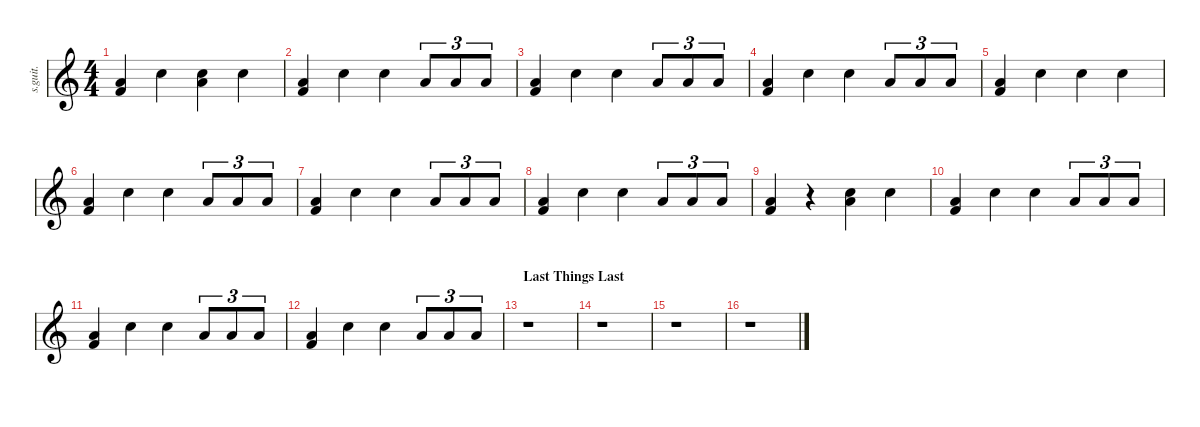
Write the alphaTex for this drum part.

\defaultSystemsLayout 4
\hideDynamics
\bracketExtendMode nobrackets
\track ("Daniel Platzman - Drums" "s.guit.") {instrument percussion}
\staff {score}
\articulation defaults
\ts (4 4)
\tempo (125 hide)
\clef g2
\ks c
("Low Floor Tom (hit)" "Kick (hit) 2").4{lyrics (0 "") lyrics (1 "") lyrics (2 "") lyrics (3 "") lyrics (4 "") dy f} "Hand Clap (hit)".4{lyrics (0 "") lyrics (1 "") lyrics (2 "") lyrics (3 "") lyrics (4 "")} ("Low Floor Tom (hit)" "Electric Snare (hit)").4{lyrics (0 "") lyrics (1 "") lyrics (2 "") lyrics (3 "") lyrics (4 "")} "Hand Clap (hit)".4{lyrics (0 "") lyrics (1 "") lyrics (2 "") lyrics (3 "") lyrics (4 "")} |
("Low Floor Tom (hit)" "Kick (hit) 2").4{lyrics (0 "") lyrics (1 "") lyrics (2 "") lyrics (3 "") lyrics (4 "")} "Hand Clap (hit)".4{lyrics (0 "") lyrics (1 "") lyrics (2 "") lyrics (3 "") lyrics (4 "")} "Electric Snare (hit)".4{lyrics (0 "") lyrics (1 "") lyrics (2 "") lyrics (3 "") lyrics (4 "")} "Low Floor Tom (hit)".8{tu (3 2) lyrics (0 "") lyrics (1 "") lyrics (2 "") lyrics (3 "") lyrics (4 "")} "Low Floor Tom (hit)".8{tu (3 2) lyrics (0 "") lyrics (1 "") lyrics (2 "") lyrics (3 "") lyrics (4 "")} "Low Floor Tom (hit)".8{tu (3 2) lyrics (0 "") lyrics (1 "") lyrics (2 "") lyrics (3 "") lyrics (4 "")} |
("Low Floor Tom (hit)" "Kick (hit) 2").4{lyrics (0 "") lyrics (1 "") lyrics (2 "") lyrics (3 "") lyrics (4 "")} "Hand Clap (hit)".4{lyrics (0 "") lyrics (1 "") lyrics (2 "") lyrics (3 "") lyrics (4 "")} "Electric Snare (hit)".4{lyrics (0 "") lyrics (1 "") lyrics (2 "") lyrics (3 "") lyrics (4 "")} "Low Floor Tom (hit)".8{tu (3 2) lyrics (0 "") lyrics (1 "") lyrics (2 "") lyrics (3 "") lyrics (4 "")} "Low Floor Tom (hit)".8{tu (3 2) lyrics (0 "") lyrics (1 "") lyrics (2 "") lyrics (3 "") lyrics (4 "")} "Low Floor Tom (hit)".8{tu (3 2) lyrics (0 "") lyrics (1 "") lyrics (2 "") lyrics (3 "") lyrics (4 "")} |
("Low Floor Tom (hit)" "Kick (hit) 2").4{lyrics (0 "") lyrics (1 "") lyrics (2 "") lyrics (3 "") lyrics (4 "")} "Hand Clap (hit)".4{lyrics (0 "") lyrics (1 "") lyrics (2 "") lyrics (3 "") lyrics (4 "")} "Electric Snare (hit)".4{lyrics (0 "") lyrics (1 "") lyrics (2 "") lyrics (3 "") lyrics (4 "")} "Low Floor Tom (hit)".8{tu (3 2) lyrics (0 "") lyrics (1 "") lyrics (2 "") lyrics (3 "") lyrics (4 "")} "Low Floor Tom (hit)".8{tu (3 2) lyrics (0 "") lyrics (1 "") lyrics (2 "") lyrics (3 "") lyrics (4 "")} "Low Floor Tom (hit)".8{tu (3 2) lyrics (0 "") lyrics (1 "") lyrics (2 "") lyrics (3 "") lyrics (4 "")} |
("Low Floor Tom (hit)" "Kick (hit) 2").4{lyrics (0 "") lyrics (1 "") lyrics (2 "") lyrics (3 "") lyrics (4 "")} "Hand Clap (hit)".4{lyrics (0 "") lyrics (1 "") lyrics (2 "") lyrics (3 "") lyrics (4 "")} "Electric Snare (hit)".4{lyrics (0 "") lyrics (1 "") lyrics (2 "") lyrics (3 "") lyrics (4 "")} "Hand Clap (hit)".4{lyrics (0 "") lyrics (1 "") lyrics (2 "") lyrics (3 "") lyrics (4 "")} |
("Low Floor Tom (hit)" "Kick (hit) 2").4{lyrics (0 "") lyrics (1 "") lyrics (2 "") lyrics (3 "") lyrics (4 "")} "Hand Clap (hit)".4{lyrics (0 "") lyrics (1 "") lyrics (2 "") lyrics (3 "") lyrics (4 "")} "Electric Snare (hit)".4{lyrics (0 "") lyrics (1 "") lyrics (2 "") lyrics (3 "") lyrics (4 "")} "Low Floor Tom (hit)".8{tu (3 2) lyrics (0 "") lyrics (1 "") lyrics (2 "") lyrics (3 "") lyrics (4 "")} "Low Floor Tom (hit)".8{tu (3 2) lyrics (0 "") lyrics (1 "") lyrics (2 "") lyrics (3 "") lyrics (4 "")} "Low Floor Tom (hit)".8{tu (3 2) lyrics (0 "") lyrics (1 "") lyrics (2 "") lyrics (3 "") lyrics (4 "")} |
("Low Floor Tom (hit)" "Kick (hit) 2").4{lyrics (0 "") lyrics (1 "") lyrics (2 "") lyrics (3 "") lyrics (4 "")} "Hand Clap (hit)".4{lyrics (0 "") lyrics (1 "") lyrics (2 "") lyrics (3 "") lyrics (4 "")} "Electric Snare (hit)".4{lyrics (0 "") lyrics (1 "") lyrics (2 "") lyrics (3 "") lyrics (4 "")} "Low Floor Tom (hit)".8{tu (3 2) lyrics (0 "") lyrics (1 "") lyrics (2 "") lyrics (3 "") lyrics (4 "")} "Low Floor Tom (hit)".8{tu (3 2) lyrics (0 "") lyrics (1 "") lyrics (2 "") lyrics (3 "") lyrics (4 "")} "Low Floor Tom (hit)".8{tu (3 2) lyrics (0 "") lyrics (1 "") lyrics (2 "") lyrics (3 "") lyrics (4 "")} |
("Low Floor Tom (hit)" "Kick (hit) 2").4{lyrics (0 "") lyrics (1 "") lyrics (2 "") lyrics (3 "") lyrics (4 "")} "Hand Clap (hit)".4{lyrics (0 "") lyrics (1 "") lyrics (2 "") lyrics (3 "") lyrics (4 "")} "Electric Snare (hit)".4{lyrics (0 "") lyrics (1 "") lyrics (2 "") lyrics (3 "") lyrics (4 "")} "Low Floor Tom (hit)".8{tu (3 2) lyrics (0 "") lyrics (1 "") lyrics (2 "") lyrics (3 "") lyrics (4 "")} "Low Floor Tom (hit)".8{tu (3 2) lyrics (0 "") lyrics (1 "") lyrics (2 "") lyrics (3 "") lyrics (4 "")} "Low Floor Tom (hit)".8{tu (3 2) lyrics (0 "") lyrics (1 "") lyrics (2 "") lyrics (3 "") lyrics (4 "")} |
("Low Floor Tom (hit)" "Kick (hit) 2").4{lyrics (0 "") lyrics (1 "") lyrics (2 "") lyrics (3 "") lyrics (4 "")} r.4 ("Low Floor Tom (hit)" "Electric Snare (hit)").4{lyrics (0 "") lyrics (1 "") lyrics (2 "") lyrics (3 "") lyrics (4 "")} "Hand Clap (hit)".4{lyrics (0 "") lyrics (1 "") lyrics (2 "") lyrics (3 "") lyrics (4 "")} |
("Low Floor Tom (hit)" "Kick (hit) 2").4{lyrics (0 "") lyrics (1 "") lyrics (2 "") lyrics (3 "") lyrics (4 "")} "Hand Clap (hit)".4{lyrics (0 "") lyrics (1 "") lyrics (2 "") lyrics (3 "") lyrics (4 "")} "Electric Snare (hit)".4{lyrics (0 "") lyrics (1 "") lyrics (2 "") lyrics (3 "") lyrics (4 "")} "Low Floor Tom (hit)".8{tu (3 2) lyrics (0 "") lyrics (1 "") lyrics (2 "") lyrics (3 "") lyrics (4 "")} "Low Floor Tom (hit)".8{tu (3 2) lyrics (0 "") lyrics (1 "") lyrics (2 "") lyrics (3 "") lyrics (4 "")} "Low Floor Tom (hit)".8{tu (3 2) lyrics (0 "") lyrics (1 "") lyrics (2 "") lyrics (3 "") lyrics (4 "")} |
("Low Floor Tom (hit)" "Kick (hit) 2").4{lyrics (0 "") lyrics (1 "") lyrics (2 "") lyrics (3 "") lyrics (4 "")} "Hand Clap (hit)".4{lyrics (0 "") lyrics (1 "") lyrics (2 "") lyrics (3 "") lyrics (4 "")} "Electric Snare (hit)".4{lyrics (0 "") lyrics (1 "") lyrics (2 "") lyrics (3 "") lyrics (4 "")} "Low Floor Tom (hit)".8{tu (3 2) lyrics (0 "") lyrics (1 "") lyrics (2 "") lyrics (3 "") lyrics (4 "")} "Low Floor Tom (hit)".8{tu (3 2) lyrics (0 "") lyrics (1 "") lyrics (2 "") lyrics (3 "") lyrics (4 "")} "Low Floor Tom (hit)".8{tu (3 2) lyrics (0 "") lyrics (1 "") lyrics (2 "") lyrics (3 "") lyrics (4 "")} |
("Low Floor Tom (hit)" "Kick (hit) 2").4{lyrics (0 "") lyrics (1 "") lyrics (2 "") lyrics (3 "") lyrics (4 "")} "Hand Clap (hit)".4{lyrics (0 "") lyrics (1 "") lyrics (2 "") lyrics (3 "") lyrics (4 "")} "Electric Snare (hit)".4{lyrics (0 "") lyrics (1 "") lyrics (2 "") lyrics (3 "") lyrics (4 "")} "Low Floor Tom (hit)".8{tu (3 2) lyrics (0 "") lyrics (1 "") lyrics (2 "") lyrics (3 "") lyrics (4 "")} "Low Floor Tom (hit)".8{tu (3 2) lyrics (0 "") lyrics (1 "") lyrics (2 "") lyrics (3 "") lyrics (4 "")} "Low Floor Tom (hit)".8{tu (3 2) lyrics (0 "") lyrics (1 "") lyrics (2 "") lyrics (3 "") lyrics (4 "")} |
\section ("" "Last Things Last")
r.1 |
r.1 |
r.1 |
r.1
